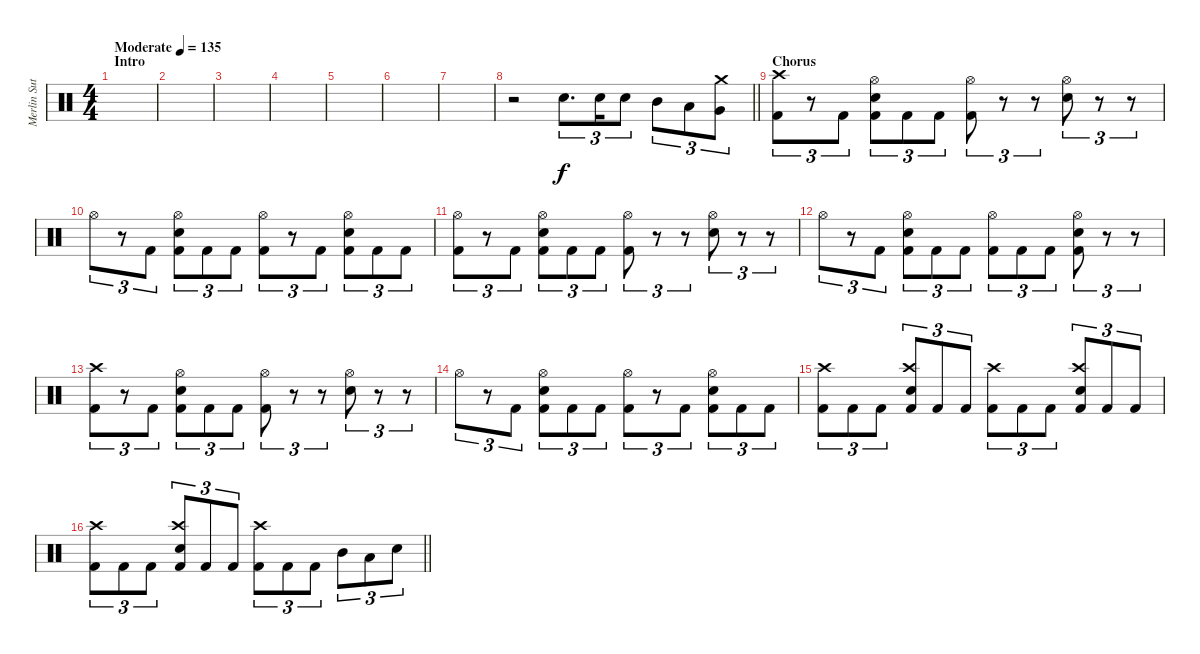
\track ("Merlin Sutter" "Merlin Sut") {instrument percussion}
\staff {score}
\articulation defaults
\ts (4 4)
\section ("" "Intro")
\tempo (135 "Moderate")
\clef neutral
\ks c
|
|
|
|
|
|
|
\barLineRight lightlight
r.2 "Snare (hit) 2".8{d tu (3 2)} "Snare (hit) 2".16{tu (3 2)} "Snare (hit) 2".8{tu (3 2)} "Mid Tom (hit)".8{tu (3 2)} "Low Tom (hit)".8{tu (3 2)} ("Crash medium (hit)" "Very Low Tom (hit)").8{tu (3 2)} |
\section ("" "Chorus")
("Crash high (hit)" "Kick (hit) 2").8{tu (3 2)} r.8{tu (3 2)} "Kick (hit) 2".8{tu (3 2)} ("Hi-Hat (open)" "Snare (hit) 2" "Kick (hit) 2").8{tu (3 2)} "Kick (hit) 2".8{tu (3 2)} "Kick (hit) 2".8{tu (3 2)} ("Hi-Hat (open)" "Kick (hit) 2").8{tu (3 2)} r.8{tu (3 2)} r.8{tu (3 2)} ("Hi-Hat (open)" "Snare (hit) 2").8{tu (3 2)} r.8{tu (3 2)} r.8{tu (3 2)} |
"Hi-Hat (open)".8{tu (3 2)} r.8{tu (3 2)} "Kick (hit) 2".8{tu (3 2)} ("Hi-Hat (open)" "Snare (hit) 2" "Kick (hit) 2").8{tu (3 2)} "Kick (hit) 2".8{tu (3 2)} "Kick (hit) 2".8{tu (3 2)} ("Hi-Hat (open)" "Kick (hit) 2").8{tu (3 2)} r.8{tu (3 2)} "Kick (hit) 2".8{tu (3 2)} ("Hi-Hat (open)" "Snare (hit) 2" "Kick (hit) 2").8{tu (3 2)} "Kick (hit) 2".8{tu (3 2)} "Kick (hit) 2".8{tu (3 2)} |
("Hi-Hat (open)" "Kick (hit) 2").8{tu (3 2)} r.8{tu (3 2)} "Kick (hit) 2".8{tu (3 2)} ("Hi-Hat (open)" "Snare (hit) 2" "Kick (hit) 2").8{tu (3 2)} "Kick (hit) 2".8{tu (3 2)} "Kick (hit) 2".8{tu (3 2)} ("Hi-Hat (open)" "Kick (hit) 2").8{tu (3 2)} r.8{tu (3 2)} r.8{tu (3 2)} ("Hi-Hat (open)" "Snare (hit) 2").8{tu (3 2)} r.8{tu (3 2)} r.8{tu (3 2)} |
"Hi-Hat (open)".8{tu (3 2)} r.8{tu (3 2)} "Kick (hit) 2".8{tu (3 2)} ("Hi-Hat (open)" "Snare (hit) 2" "Kick (hit) 2").8{tu (3 2)} "Kick (hit) 2".8{tu (3 2)} "Kick (hit) 2".8{tu (3 2)} ("Hi-Hat (open)" "Kick (hit) 2").8{tu (3 2)} "Kick (hit) 2".8{tu (3 2)} "Kick (hit) 2".8{tu (3 2)} ("Hi-Hat (open)" "Snare (hit) 2" "Kick (hit) 2").8{tu (3 2)} r.8{tu (3 2)} r.8{tu (3 2)} |
("Crash high (hit)" "Kick (hit) 2").8{tu (3 2)} r.8{tu (3 2)} "Kick (hit) 2".8{tu (3 2)} ("Hi-Hat (open)" "Snare (hit) 2" "Kick (hit) 2").8{tu (3 2)} "Kick (hit) 2".8{tu (3 2)} "Kick (hit) 2".8{tu (3 2)} ("Hi-Hat (open)" "Kick (hit) 2").8{tu (3 2)} r.8{tu (3 2)} r.8{tu (3 2)} ("Hi-Hat (open)" "Snare (hit) 2").8{tu (3 2)} r.8{tu (3 2)} r.8{tu (3 2)} |
"Hi-Hat (open)".8{tu (3 2)} r.8{tu (3 2)} "Kick (hit) 2".8{tu (3 2)} ("Hi-Hat (open)" "Snare (hit) 2" "Kick (hit) 2").8{tu (3 2)} "Kick (hit) 2".8{tu (3 2)} "Kick (hit) 2".8{tu (3 2)} ("Hi-Hat (open)" "Kick (hit) 2").8{tu (3 2)} r.8{tu (3 2)} "Kick (hit) 2".8{tu (3 2)} ("Hi-Hat (open)" "Snare (hit) 2" "Kick (hit) 2").8{tu (3 2)} "Kick (hit) 2".8{tu (3 2)} "Kick (hit) 2".8{tu (3 2)} |
("Crash high (hit)" "Kick (hit) 2").8{tu (3 2)} "Kick (hit) 2".8{tu (3 2)} "Kick (hit) 2".8{tu (3 2)} ("Crash high (hit)" "Snare (hit) 2" "Kick (hit) 2").8{tu (3 2)} "Kick (hit) 2".8{tu (3 2)} "Kick (hit) 2".8{tu (3 2)} ("Crash high (hit)" "Kick (hit) 2").8{tu (3 2)} "Kick (hit) 2".8{tu (3 2)} "Kick (hit) 2".8{tu (3 2)} ("Crash high (hit)" "Snare (hit) 2" "Kick (hit) 2").8{tu (3 2)} "Kick (hit) 2".8{tu (3 2)} "Kick (hit) 2".8{tu (3 2)} |
\barLineRight lightlight
("Crash high (hit)" "Kick (hit) 2").8{tu (3 2)} "Kick (hit) 2".8{tu (3 2)} "Kick (hit) 2".8{tu (3 2)} ("Crash high (hit)" "Snare (hit) 2" "Kick (hit) 2").8{tu (3 2)} "Kick (hit) 2".8{tu (3 2)} "Kick (hit) 2".8{tu (3 2)} ("Crash high (hit)" "Kick (hit) 2").8{tu (3 2)} "Kick (hit) 2".8{tu (3 2)} "Kick (hit) 2".8{tu (3 2)} "Mid Tom (hit)".8{tu (3 2)} "Low Tom (hit)".8{tu (3 2)} "Snare (hit) 2".8{tu (3 2)}
